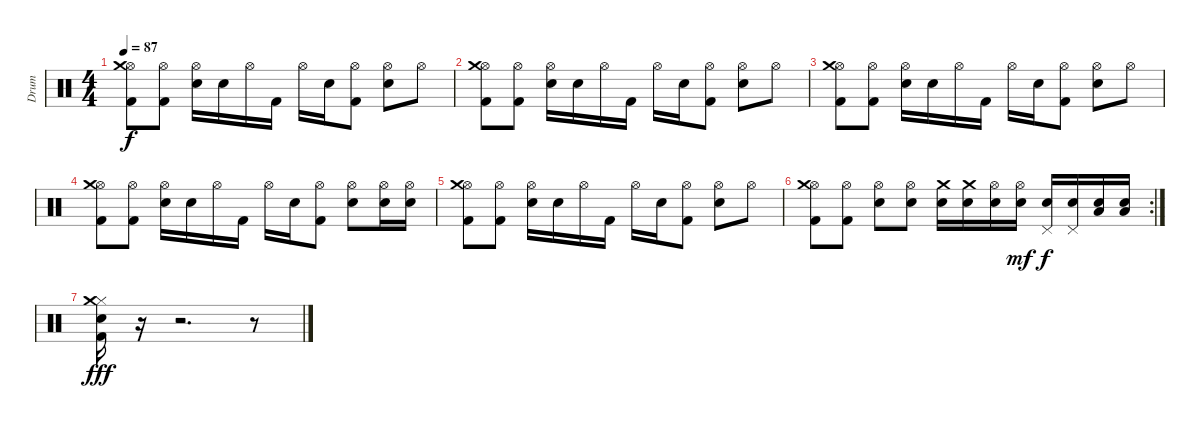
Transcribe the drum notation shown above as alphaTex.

\track ("Drum" "Drum") {instrument percussion}
\staff {score}
\articulation defaults
\ts (4 4)
\tempo 87
\clef neutral
\ks c
("Hi-Hat (open)" "Crash medium (hit)" "Kick (hit) 2").8{dy f} ("Hi-Hat (open)" "Kick (hit) 2").8 ("Hi-Hat (open)" "Snare (hit) 2").16 "Snare (hit) 2".16 "Hi-Hat (open)".16 "Kick (hit) 2".16 "Hi-Hat (open)".16 "Snare (hit) 2".16 ("Hi-Hat (open)" "Kick (hit) 2").8 ("Hi-Hat (open)" "Snare (hit) 2").8 "Hi-Hat (open)".8 |
("Hi-Hat (open)" "Crash medium (hit)" "Kick (hit) 2").8 ("Hi-Hat (open)" "Kick (hit) 2").8 ("Hi-Hat (open)" "Snare (hit) 2").16 "Snare (hit) 2".16 "Hi-Hat (open)".16 "Kick (hit) 2".16 "Hi-Hat (open)".16 "Snare (hit) 2".16 ("Hi-Hat (open)" "Kick (hit) 2").8 ("Hi-Hat (open)" "Snare (hit) 2").8 "Hi-Hat (open)".8 |
("Hi-Hat (open)" "Crash medium (hit)" "Kick (hit) 2").8 ("Hi-Hat (open)" "Kick (hit) 2").8 ("Hi-Hat (open)" "Snare (hit) 2").16 "Snare (hit) 2".16 "Hi-Hat (open)".16 "Kick (hit) 2".16 "Hi-Hat (open)".16 "Snare (hit) 2".16 ("Hi-Hat (open)" "Kick (hit) 2").8 ("Hi-Hat (open)" "Snare (hit) 2").8 "Hi-Hat (open)".8 |
("Hi-Hat (open)" "Crash medium (hit)" "Kick (hit) 2").8 ("Hi-Hat (open)" "Kick (hit) 2").8 ("Hi-Hat (open)" "Snare (hit) 2").16 "Snare (hit) 2".16 "Hi-Hat (open)".16 "Kick (hit) 2".16 "Hi-Hat (open)".16 "Snare (hit) 2".16 ("Hi-Hat (open)" "Kick (hit) 2").8 ("Hi-Hat (open)" "Snare (hit) 2").8 ("Hi-Hat (open)" "Snare (hit) 2").16 ("Hi-Hat (open)" "Snare (hit) 2").16 |
("Hi-Hat (open)" "Crash medium (hit)" "Kick (hit) 2").8 ("Hi-Hat (open)" "Kick (hit) 2").8 ("Hi-Hat (open)" "Snare (hit) 2").16 "Snare (hit) 2".16 "Hi-Hat (open)".16 "Kick (hit) 2".16 "Hi-Hat (open)".16 "Snare (hit) 2".16 ("Hi-Hat (open)" "Kick (hit) 2").8 ("Hi-Hat (open)" "Snare (hit) 2").8 "Hi-Hat (open)".8 |
\rc 2
("Hi-Hat (open)" "Crash medium (hit)" "Kick (hit) 2").8 ("Hi-Hat (open)" "Kick (hit) 2").8 ("Hi-Hat (open)" "Snare (hit) 2").8 ("Hi-Hat (open)" "Snare (hit) 2").8 ("Crash medium (hit)" "Snare (hit) 2").16 ("Crash medium (hit)" "Snare (hit) 2").16 ("Hi-Hat (open)" "Snare (hit) 2").16 ("Hi-Hat (open)" "Snare (hit) 2").16{dy mf} ("Pedal Hi-Hat (hit)" "Snare (hit) 2").16{dy f} ("Pedal Hi-Hat (hit)" "Snare (hit) 2").16 ("Low Tom (hit)" "Snare (hit) 2").16 ("Low Tom (hit)" "Snare (hit) 2").16 |
("Hi-Hat (closed)" "Crash medium (hit)" "Snare (hit) 2" "Kick (hit) 2").16{dy fff} r.16 r.2{d} r.8
